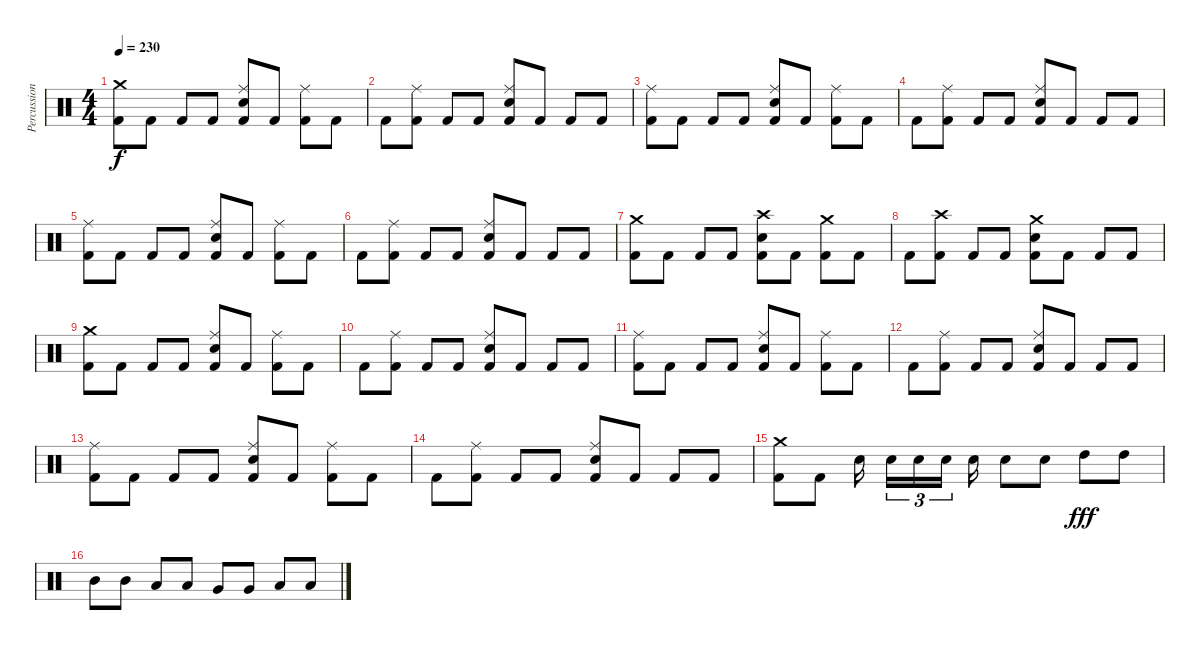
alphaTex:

\track ("Percussions" "Percussion") {instrument percussion}
\staff {score}
\articulation defaults
\ts (4 4)
\tempo 230
\clef neutral
\ks c
("Crash medium (hit)" "Kick (hit) 2").8{dy f volume 13} "Kick (hit) 2".8 "Kick (hit) 2".8 "Kick (hit) 2".8 ("Ride (middle)" "Electric Snare (hit)" "Kick (hit) 2").8 "Kick (hit) 2".8 ("Ride (middle)" "Kick (hit) 2").8 "Kick (hit) 2".8 |
"Kick (hit) 2".8 ("Ride (middle)" "Kick (hit) 2").8 "Kick (hit) 2".8 "Kick (hit) 2".8 ("Ride (middle)" "Electric Snare (hit)" "Kick (hit) 2").8 "Kick (hit) 2".8 "Kick (hit) 2".8 "Kick (hit) 2".8 |
("Ride (middle)" "Kick (hit) 2").8 "Kick (hit) 2".8 "Kick (hit) 2".8 "Kick (hit) 2".8 ("Ride (middle)" "Electric Snare (hit)" "Kick (hit) 2").8 "Kick (hit) 2".8 ("Ride (middle)" "Kick (hit) 2").8 "Kick (hit) 2".8 |
"Kick (hit) 2".8 ("Ride (middle)" "Kick (hit) 2").8 "Kick (hit) 2".8 "Kick (hit) 2".8 ("Ride (middle)" "Electric Snare (hit)" "Kick (hit) 2").8 "Kick (hit) 2".8 "Kick (hit) 2".8 "Kick (hit) 2".8 |
("Ride (middle)" "Kick (hit) 2").8 "Kick (hit) 2".8 "Kick (hit) 2".8 "Kick (hit) 2".8 ("Ride (middle)" "Electric Snare (hit)" "Kick (hit) 2").8 "Kick (hit) 2".8 ("Ride (middle)" "Kick (hit) 2").8 "Kick (hit) 2".8 |
"Kick (hit) 2".8 ("Ride (middle)" "Kick (hit) 2").8 "Kick (hit) 2".8 "Kick (hit) 2".8 ("Ride (middle)" "Electric Snare (hit)" "Kick (hit) 2").8 "Kick (hit) 2".8 "Kick (hit) 2".8 "Kick (hit) 2".8 |
("Crash medium (hit)" "Kick (hit) 2").8 "Kick (hit) 2".8 "Kick (hit) 2".8 "Kick (hit) 2".8 ("Crash high (hit)" "Electric Snare (hit)" "Kick (hit) 2").8 "Kick (hit) 2".8 ("Crash medium (hit)" "Kick (hit) 2").8 "Kick (hit) 2".8 |
"Kick (hit) 2".8 ("Crash high (hit)" "Kick (hit) 2").8 "Kick (hit) 2".8 "Kick (hit) 2".8 ("Crash medium (hit)" "Electric Snare (hit)" "Kick (hit) 2").8 "Kick (hit) 2".8 "Kick (hit) 2".8 "Kick (hit) 2".8 |
("Crash medium (hit)" "Kick (hit) 2").8{volume 13} "Kick (hit) 2".8 "Kick (hit) 2".8 "Kick (hit) 2".8 ("Ride (middle)" "Electric Snare (hit)" "Kick (hit) 2").8 "Kick (hit) 2".8 ("Ride (middle)" "Kick (hit) 2").8 "Kick (hit) 2".8 |
"Kick (hit) 2".8 ("Ride (middle)" "Kick (hit) 2").8 "Kick (hit) 2".8 "Kick (hit) 2".8 ("Ride (middle)" "Electric Snare (hit)" "Kick (hit) 2").8 "Kick (hit) 2".8 "Kick (hit) 2".8 "Kick (hit) 2".8 |
("Ride (middle)" "Kick (hit) 2").8 "Kick (hit) 2".8 "Kick (hit) 2".8 "Kick (hit) 2".8 ("Ride (middle)" "Electric Snare (hit)" "Kick (hit) 2").8 "Kick (hit) 2".8 ("Ride (middle)" "Kick (hit) 2").8 "Kick (hit) 2".8 |
"Kick (hit) 2".8 ("Ride (middle)" "Kick (hit) 2").8 "Kick (hit) 2".8 "Kick (hit) 2".8 ("Ride (middle)" "Electric Snare (hit)" "Kick (hit) 2").8 "Kick (hit) 2".8 "Kick (hit) 2".8 "Kick (hit) 2".8 |
("Ride (middle)" "Kick (hit) 2").8 "Kick (hit) 2".8 "Kick (hit) 2".8 "Kick (hit) 2".8 ("Ride (middle)" "Electric Snare (hit)" "Kick (hit) 2").8 "Kick (hit) 2".8 ("Ride (middle)" "Kick (hit) 2").8 "Kick (hit) 2".8 |
"Kick (hit) 2".8 ("Ride (middle)" "Kick (hit) 2").8 "Kick (hit) 2".8 "Kick (hit) 2".8 ("Ride (middle)" "Electric Snare (hit)" "Kick (hit) 2").8 "Kick (hit) 2".8 "Kick (hit) 2".8 "Kick (hit) 2".8 |
("Crash medium (hit)" "Kick (hit) 2").8 "Kick (hit) 2".8 "Electric Snare (hit)".16 "Electric Snare (hit)".16{tu (3 2)} "Electric Snare (hit)".16{tu (3 2)} "Electric Snare (hit)".16{tu (3 2)} "Electric Snare (hit)".16 "Electric Snare (hit)".8 "Electric Snare (hit)".8 "High Tom (hit)".8{dy fff} "High Tom (hit)".8 |
"Mid Tom (hit)".8 "Mid Tom (hit)".8 "Low Tom (hit)".8 "Low Tom (hit)".8 "Very Low Tom (hit)".8 "Very Low Tom (hit)".8 "Low Floor Tom (hit)".8 "Low Floor Tom (hit)".8
